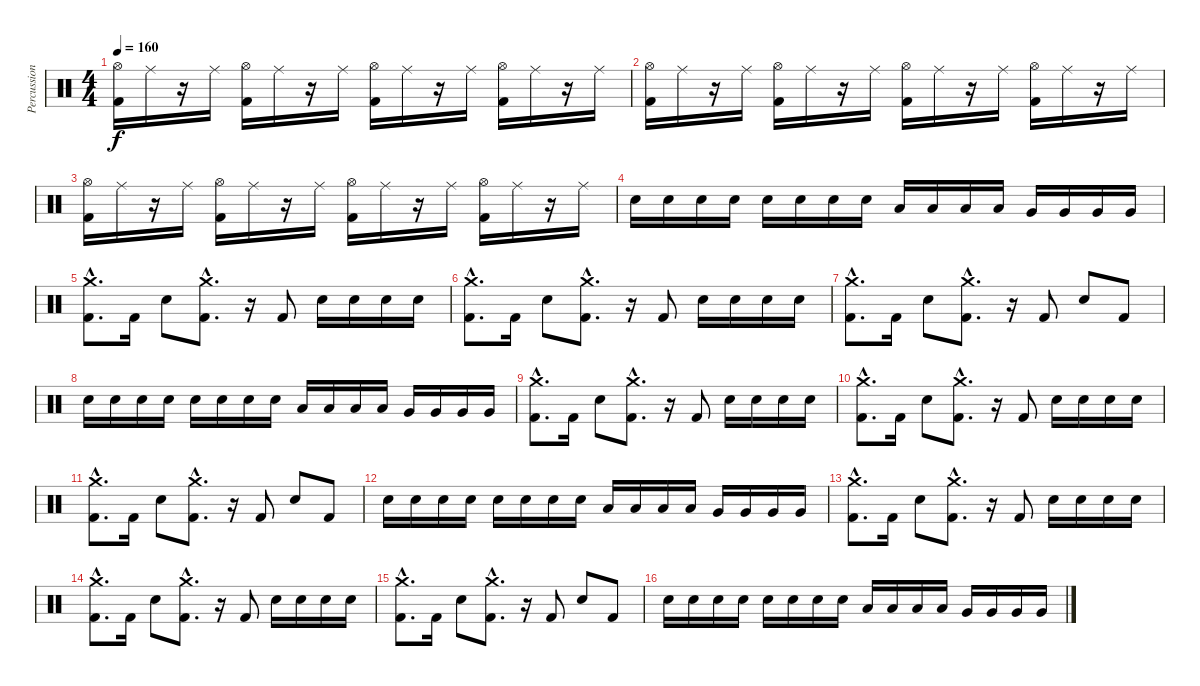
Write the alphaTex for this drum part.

\track ("Percussion" "Percussion") {instrument percussion}
\staff {score}
\articulation defaults
\ts (4 4)
\tempo 160
\clef neutral
\ks c
("Kick (hit) 2" "Hi-Hat (open)").16{dy f} "Ride (middle)".16 r.16 "Ride (middle)".16 ("Kick (hit) 2" "Hi-Hat (open)").16 "Ride (middle)".16 r.16 "Ride (middle)".16 ("Kick (hit) 2" "Hi-Hat (open)").16 "Ride (middle)".16 r.16 "Ride (middle)".16 ("Kick (hit) 2" "Hi-Hat (open)").16 "Ride (middle)".16 r.16 "Ride (middle)".16 |
("Kick (hit) 2" "Hi-Hat (open)").16 "Ride (middle)".16 r.16 "Ride (middle)".16 ("Kick (hit) 2" "Hi-Hat (open)").16 "Ride (middle)".16 r.16 "Ride (middle)".16 ("Kick (hit) 2" "Hi-Hat (open)").16 "Ride (middle)".16 r.16 "Ride (middle)".16 ("Kick (hit) 2" "Hi-Hat (open)").16 "Ride (middle)".16 r.16 "Ride (middle)".16 |
("Kick (hit) 2" "Hi-Hat (open)").16 "Ride (middle)".16 r.16 "Ride (middle)".16 ("Kick (hit) 2" "Hi-Hat (open)").16 "Ride (middle)".16 r.16 "Ride (middle)".16 ("Kick (hit) 2" "Hi-Hat (open)").16 "Ride (middle)".16 r.16 "Ride (middle)".16 ("Kick (hit) 2" "Hi-Hat (open)").16 "Ride (middle)".16 r.16 "Ride (middle)".16 |
"Electric Snare (hit)".16 "Electric Snare (hit)".16 "Electric Snare (hit)".16 "Electric Snare (hit)".16 "Electric Snare (hit)".16 "Electric Snare (hit)".16 "Electric Snare (hit)".16 "Electric Snare (hit)".16 "Low Tom (hit)".16 "Low Tom (hit)".16 "Low Tom (hit)".16 "Low Tom (hit)".16 "Very Low Tom (hit)".16 "Very Low Tom (hit)".16 "Very Low Tom (hit)".16 "Very Low Tom (hit)".16 |
("Kick (hit) 2"{hac} "Crash medium (hit)"{hac}).8{d} "Kick (hit) 2".16 "Electric Snare (hit)".8 ("Kick (hit) 2"{hac} "Crash medium (hit)"{hac}).8{d} r.16 "Kick (hit) 2".8 "Electric Snare (hit)".16 "Electric Snare (hit)".16 "Electric Snare (hit)".16 "Electric Snare (hit)".16 |
("Kick (hit) 2"{hac} "Crash medium (hit)"{hac}).8{d} "Kick (hit) 2".16 "Electric Snare (hit)".8 ("Kick (hit) 2"{hac} "Crash medium (hit)"{hac}).8{d} r.16 "Kick (hit) 2".8 "Electric Snare (hit)".16 "Electric Snare (hit)".16 "Electric Snare (hit)".16 "Electric Snare (hit)".16 |
("Kick (hit) 2"{hac} "Crash medium (hit)"{hac}).8{d} "Kick (hit) 2".16 "Electric Snare (hit)".8 ("Kick (hit) 2"{hac} "Crash medium (hit)"{hac}).8{d} r.16 "Kick (hit) 2".8 "Electric Snare (hit)".8 "Kick (hit) 2".8 |
"Electric Snare (hit)".16 "Electric Snare (hit)".16 "Electric Snare (hit)".16 "Electric Snare (hit)".16 "Electric Snare (hit)".16 "Electric Snare (hit)".16 "Electric Snare (hit)".16 "Electric Snare (hit)".16 "Low Tom (hit)".16 "Low Tom (hit)".16 "Low Tom (hit)".16 "Low Tom (hit)".16 "Very Low Tom (hit)".16 "Very Low Tom (hit)".16 "Very Low Tom (hit)".16 "Very Low Tom (hit)".16 |
("Kick (hit) 2"{hac} "Crash medium (hit)"{hac}).8{d} "Kick (hit) 2".16 "Electric Snare (hit)".8 ("Kick (hit) 2"{hac} "Crash medium (hit)"{hac}).8{d} r.16 "Kick (hit) 2".8 "Electric Snare (hit)".16 "Electric Snare (hit)".16 "Electric Snare (hit)".16 "Electric Snare (hit)".16 |
("Kick (hit) 2"{hac} "Crash medium (hit)"{hac}).8{d} "Kick (hit) 2".16 "Electric Snare (hit)".8 ("Kick (hit) 2"{hac} "Crash medium (hit)"{hac}).8{d} r.16 "Kick (hit) 2".8 "Electric Snare (hit)".16 "Electric Snare (hit)".16 "Electric Snare (hit)".16 "Electric Snare (hit)".16 |
("Kick (hit) 2"{hac} "Crash medium (hit)"{hac}).8{d} "Kick (hit) 2".16 "Electric Snare (hit)".8 ("Kick (hit) 2"{hac} "Crash medium (hit)"{hac}).8{d} r.16 "Kick (hit) 2".8 "Electric Snare (hit)".8 "Kick (hit) 2".8 |
"Electric Snare (hit)".16 "Electric Snare (hit)".16 "Electric Snare (hit)".16 "Electric Snare (hit)".16 "Electric Snare (hit)".16 "Electric Snare (hit)".16 "Electric Snare (hit)".16 "Electric Snare (hit)".16 "Low Tom (hit)".16 "Low Tom (hit)".16 "Low Tom (hit)".16 "Low Tom (hit)".16 "Very Low Tom (hit)".16 "Very Low Tom (hit)".16 "Very Low Tom (hit)".16 "Very Low Tom (hit)".16 |
("Kick (hit) 2"{hac} "Crash medium (hit)"{hac}).8{d} "Kick (hit) 2".16 "Electric Snare (hit)".8 ("Kick (hit) 2"{hac} "Crash medium (hit)"{hac}).8{d} r.16 "Kick (hit) 2".8 "Electric Snare (hit)".16 "Electric Snare (hit)".16 "Electric Snare (hit)".16 "Electric Snare (hit)".16 |
("Kick (hit) 2"{hac} "Crash medium (hit)"{hac}).8{d} "Kick (hit) 2".16 "Electric Snare (hit)".8 ("Kick (hit) 2"{hac} "Crash medium (hit)"{hac}).8{d} r.16 "Kick (hit) 2".8 "Electric Snare (hit)".16 "Electric Snare (hit)".16 "Electric Snare (hit)".16 "Electric Snare (hit)".16 |
("Kick (hit) 2"{hac} "Crash medium (hit)"{hac}).8{d} "Kick (hit) 2".16 "Electric Snare (hit)".8 ("Kick (hit) 2"{hac} "Crash medium (hit)"{hac}).8{d} r.16 "Kick (hit) 2".8 "Electric Snare (hit)".8 "Kick (hit) 2".8 |
"Electric Snare (hit)".16 "Electric Snare (hit)".16 "Electric Snare (hit)".16 "Electric Snare (hit)".16 "Electric Snare (hit)".16 "Electric Snare (hit)".16 "Electric Snare (hit)".16 "Electric Snare (hit)".16 "Low Tom (hit)".16 "Low Tom (hit)".16 "Low Tom (hit)".16 "Low Tom (hit)".16 "Very Low Tom (hit)".16 "Very Low Tom (hit)".16 "Very Low Tom (hit)".16 "Very Low Tom (hit)".16
